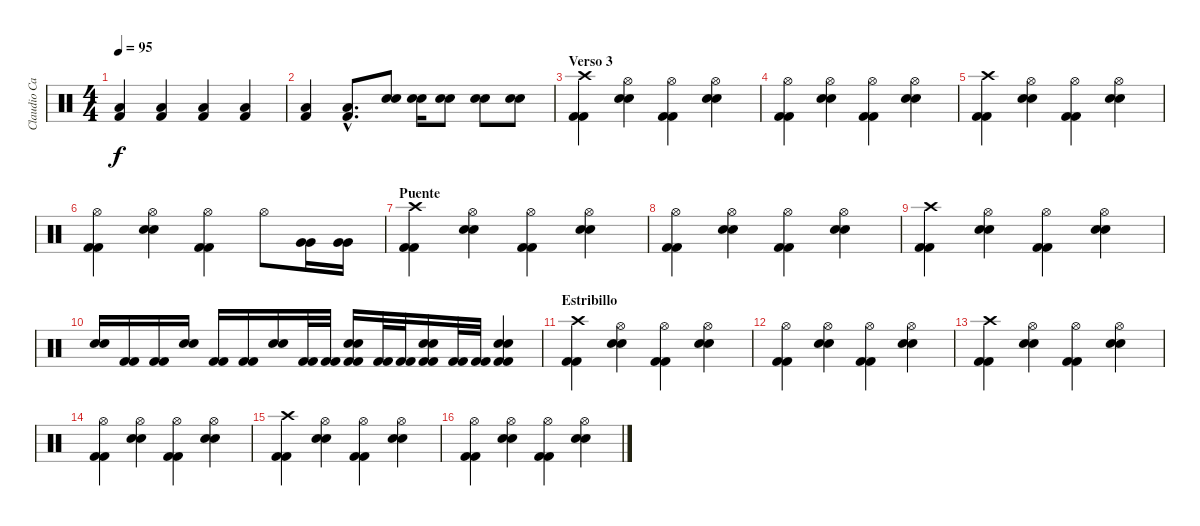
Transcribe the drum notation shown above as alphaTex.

\track ("Claudio Cardaci (bateria)" "Claudio Ca") {instrument percussion}
\staff {score}
\articulation defaults
\ts (4 4)
\tempo 95
\clef neutral
\ks c
("Kick (hit) 2" "Low Tom (hit)").4{dy f} ("Kick (hit) 2" "Low Tom (hit)").4 ("Kick (hit) 2" "Low Tom (hit)").4 ("Kick (hit) 2" "Low Tom (hit)").4 |
("Kick (hit) 2" "Low Tom (hit)").4 ("Kick (hit) 2"{hac} "Low Tom (hit)"{hac}).8{d} ("Electric Snare (hit)" "Snare (hit) 2").8 ("Electric Snare (hit)" "Snare (hit) 2").16 ("Electric Snare (hit)" "Snare (hit) 2").8 ("Electric Snare (hit)" "Snare (hit) 2").8 ("Electric Snare (hit)" "Snare (hit) 2").8 |
\section ("" "Verso 3")
("Crash high (hit)" "Kick (hit) 2" "Kick (hit) 2").4 ("Hi-Hat (open)" "Snare (hit) 2" "Snare (hit) 2").4 ("Hi-Hat (open)" "Kick (hit) 2" "Kick (hit) 2").4 ("Hi-Hat (open)" "Snare (hit) 2" "Snare (hit) 2").4 |
("Hi-Hat (open)" "Kick (hit) 2" "Kick (hit) 2").4 ("Hi-Hat (open)" "Snare (hit) 2" "Snare (hit) 2").4 ("Hi-Hat (open)" "Kick (hit) 2" "Kick (hit) 2").4 ("Hi-Hat (open)" "Snare (hit) 2" "Snare (hit) 2").4 |
("Crash high (hit)" "Kick (hit) 2" "Kick (hit) 2").4 ("Hi-Hat (open)" "Snare (hit) 2" "Snare (hit) 2").4 ("Hi-Hat (open)" "Kick (hit) 2" "Kick (hit) 2").4 ("Hi-Hat (open)" "Snare (hit) 2" "Snare (hit) 2").4 |
("Hi-Hat (open)" "Kick (hit) 2" "Kick (hit) 2").4 ("Hi-Hat (open)" "Snare (hit) 2" "Snare (hit) 2").4 ("Hi-Hat (open)" "Kick (hit) 2" "Kick (hit) 2").4 "Hi-Hat (open)".8 ("Very Low Tom (hit)" "Very Low Tom (hit)").16 ("Very Low Tom (hit)" "Very Low Tom (hit)").16 |
\section ("" "Puente")
("Crash high (hit)" "Kick (hit) 2" "Kick (hit) 2").4 ("Hi-Hat (open)" "Snare (hit) 2" "Snare (hit) 2").4 ("Hi-Hat (open)" "Kick (hit) 2" "Kick (hit) 2").4 ("Hi-Hat (open)" "Snare (hit) 2" "Snare (hit) 2").4 |
("Hi-Hat (open)" "Kick (hit) 2" "Kick (hit) 2").4 ("Hi-Hat (open)" "Snare (hit) 2" "Snare (hit) 2").4 ("Hi-Hat (open)" "Kick (hit) 2" "Kick (hit) 2").4 ("Hi-Hat (open)" "Snare (hit) 2" "Snare (hit) 2").4 |
("Crash high (hit)" "Kick (hit) 2" "Kick (hit) 2").4 ("Hi-Hat (open)" "Snare (hit) 2" "Snare (hit) 2").4 ("Hi-Hat (open)" "Kick (hit) 2" "Kick (hit) 2").4 ("Hi-Hat (open)" "Snare (hit) 2" "Snare (hit) 2").4 |
("Electric Snare (hit)" "Snare (hit) 2").16 ("Kick (hit) 2" "Kick (hit) 2").16 ("Kick (hit) 2" "Kick (hit) 2").16 ("Snare (hit) 2" "Snare (hit) 2").16 ("Kick (hit) 2" "Kick (hit) 2").16 ("Kick (hit) 2" "Kick (hit) 2").16 ("Snare (hit) 2" "Snare (hit) 2").16 ("Kick (hit) 2" "Kick (hit) 2").32 ("Kick (hit) 2" "Kick (hit) 2").32 ("Snare (hit) 2" "Snare (hit) 2" "Kick (hit) 2" "Kick (hit) 2").16 ("Kick (hit) 2" "Kick (hit) 2").32 ("Kick (hit) 2" "Kick (hit) 2").32 ("Snare (hit) 2" "Snare (hit) 2" "Kick (hit) 2" "Kick (hit) 2").16 ("Kick (hit) 2" "Kick (hit) 2").32 ("Kick (hit) 2" "Kick (hit) 2").32 ("Snare (hit) 2" "Snare (hit) 2" "Kick (hit) 2" "Kick (hit) 2").4 |
\section ("" "Estribillo")
("Crash high (hit)" "Kick (hit) 2" "Kick (hit) 2").4 ("Hi-Hat (open)" "Snare (hit) 2" "Snare (hit) 2").4 ("Hi-Hat (open)" "Kick (hit) 2" "Kick (hit) 2").4 ("Hi-Hat (open)" "Snare (hit) 2" "Snare (hit) 2").4 |
("Hi-Hat (open)" "Kick (hit) 2" "Kick (hit) 2").4 ("Hi-Hat (open)" "Snare (hit) 2" "Snare (hit) 2").4 ("Hi-Hat (open)" "Kick (hit) 2" "Kick (hit) 2").4 ("Hi-Hat (open)" "Snare (hit) 2" "Snare (hit) 2").4 |
("Crash high (hit)" "Kick (hit) 2" "Kick (hit) 2").4 ("Hi-Hat (open)" "Snare (hit) 2" "Snare (hit) 2").4 ("Hi-Hat (open)" "Kick (hit) 2" "Kick (hit) 2").4 ("Hi-Hat (open)" "Snare (hit) 2" "Snare (hit) 2").4 |
("Hi-Hat (open)" "Kick (hit) 2" "Kick (hit) 2").4 ("Hi-Hat (open)" "Snare (hit) 2" "Snare (hit) 2").4 ("Hi-Hat (open)" "Kick (hit) 2" "Kick (hit) 2").4 ("Hi-Hat (open)" "Snare (hit) 2" "Snare (hit) 2").4 |
("Crash high (hit)" "Kick (hit) 2" "Kick (hit) 2").4 ("Hi-Hat (open)" "Snare (hit) 2" "Snare (hit) 2").4 ("Hi-Hat (open)" "Kick (hit) 2" "Kick (hit) 2").4 ("Hi-Hat (open)" "Snare (hit) 2" "Snare (hit) 2").4 |
("Hi-Hat (open)" "Kick (hit) 2" "Kick (hit) 2").4 ("Hi-Hat (open)" "Snare (hit) 2" "Snare (hit) 2").4 ("Hi-Hat (open)" "Kick (hit) 2" "Kick (hit) 2").4 ("Hi-Hat (open)" "Snare (hit) 2" "Snare (hit) 2").4
